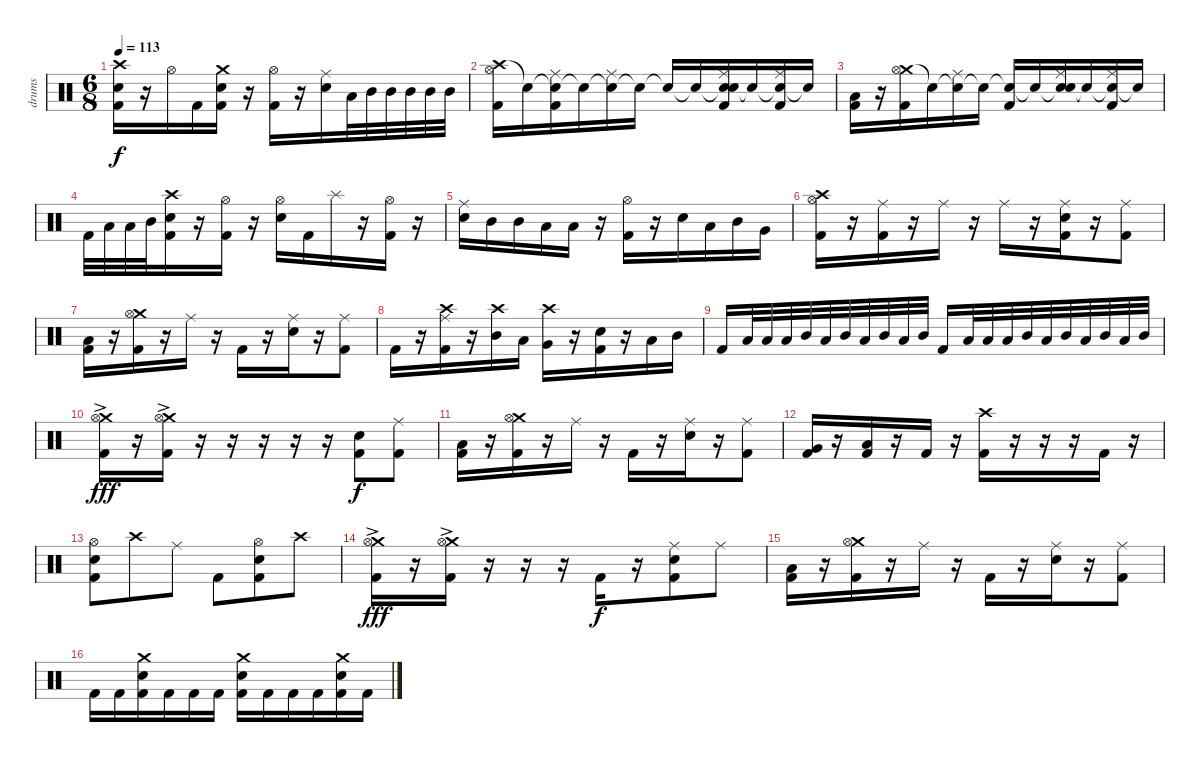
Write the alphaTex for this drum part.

\track ("drums" "drums") {instrument percussion}
\staff {score}
\articulation defaults
\ts (6 8)
\tempo 113
\clef neutral
\ks c
("Crash high (hit)" "Electric Snare (hit)" "Kick (hit) 2").16{dy f} r.16 "Hi-Hat (open)".16 "Kick (hit) 2".16 ("Crash medium (hit)" "Electric Snare (hit)" "Kick (hit) 2").16 r.16 ("Hi-Hat (open)" "Kick (hit) 2").16 r.16 ("Ride (middle)" "Electric Snare (hit)").16 "Low Tom (hit)".32 "Mid Tom (hit)".32 "Mid Tom (hit)".32 "Mid Tom (hit)".32 "Mid Tom (hit)".32 "Mid Tom (hit)".32 |
("Crash high (hit)" "Hi-Hat (open)" "Kick (hit) 2").16 "Snare (hit)"{t}.16 ("Snare (hit)"{t} "Ride (middle)" "Kick (hit) 2").16 "Snare (hit)"{t}.16 ("Snare (hit)"{t} "Ride (middle)").16 "Snare (hit)"{t}.16 "Snare (hit)"{t}.16 "Snare (hit)"{t}.16 ("Snare (hit)"{t} "Ride (middle)" "Electric Snare (hit)" "Kick (hit) 2").16 "Snare (hit)"{t}.16 ("Snare (hit)"{t} "Kick (hit) 2" "Ride (middle)").16 "Snare (hit)"{t}.16 |
("Low Tom (hit)" "Kick (hit) 2").16 r.16 ("Crash medium (hit)" "Hi-Hat (open)" "Kick (hit) 2").16 "Snare (hit)"{t}.16 ("Snare (hit)"{t} "Ride (middle)").16 "Snare (hit)"{t}.16 ("Snare (hit)"{t} "Kick (hit) 2").16 "Snare (hit)"{t}.16 ("Snare (hit)"{t} "Ride (middle)" "Electric Snare (hit)").16 "Snare (hit)"{t}.16 ("Snare (hit)"{t} "Ride (middle)" "Kick (hit) 2").16 "Snare (hit)"{t}.16 |
"Kick (hit) 2".32 "Low Tom (hit)".32 "Low Tom (hit)".32 "Mid Tom (hit)".32 ("Crash high (hit)" "Electric Snare (hit)" "Kick (hit) 2").16 r.16 ("Hi-Hat (open)" "Kick (hit) 2").16 r.16 ("Hi-Hat (open)" "Electric Snare (hit)").16 "Kick (hit) 2".16 "Splash (hit)".16 r.16 ("Hi-Hat (open)" "Kick (hit) 2").16 r.16 |
("Ride (middle)" "Electric Snare (hit)").16 "Mid Tom (hit)".16 "Mid Tom (hit)".16 "Low Tom (hit)".16 "Low Tom (hit)".16 r.16 ("Hi-Hat (open)" "Kick (hit) 2").16 r.16 "Electric Snare (hit)".16 "Low Tom (hit)".16 "Mid Tom (hit)".16 "Very Low Tom (hit)".16 |
("Crash high (hit)" "Hi-Hat (open)" "Kick (hit) 2").16 r.16 ("Ride (middle)" "Kick (hit) 2").16 r.16 "Ride (middle)".16 r.16 "Ride (middle)".16 r.16 ("Ride (middle)" "Electric Snare (hit)" "Kick (hit) 2").16 r.16 ("Kick (hit) 2" "Ride (middle)").8 |
("Low Tom (hit)" "Kick (hit) 2").16 r.16 ("Crash medium (hit)" "Hi-Hat (open)" "Kick (hit) 2").16 r.16 "Ride (middle)".16 r.16 "Kick (hit) 2".16 r.16 ("Ride (middle)" "Electric Snare (hit)").16 r.16 ("Ride (middle)" "Kick (hit) 2").8 |
"Kick (hit) 2".16 r.16 ("Crash high (hit)" "Ride (middle)" "Kick (hit) 2").16 r.16 ("Crash high (hit)" "Mid Tom (hit)").16 "Low Tom (hit)".16 ("Crash high (hit)" "Very Low Tom (hit)").16 r.16 ("Kick (hit) 2" "Electric Snare (hit)").16 r.16 "Low Tom (hit)".16 "Mid Tom (hit)".16 |
"Kick (hit) 2".16 "Low Tom (hit)".32 "Low Tom (hit)".32 "Low Tom (hit)".32 "Mid Tom (hit)".32 "Low Tom (hit)".32 "Mid Tom (hit)".32 "Low Tom (hit)".32 "Mid Tom (hit)".32 "Low Tom (hit)".32 "Mid Tom (hit)".32 "Kick (hit) 2".16 "Low Tom (hit)".32 "Low Tom (hit)".32 "Low Tom (hit)".32 "Mid Tom (hit)".32 "Low Tom (hit)".32 "Mid Tom (hit)".32 "Low Tom (hit)".32 "Mid Tom (hit)".32 "Low Tom (hit)".32 "Mid Tom (hit)".32 |
("Crash medium (hit)"{ac} "Hi-Hat (open)" "Kick (hit) 2").16{dy fff} r.16 ("Crash medium (hit)"{ac} "Hi-Hat (open)" "Kick (hit) 2").16 r.16 r.16 r.16 r.16 r.16 ("Electric Snare (hit)" "Kick (hit) 2").8{dy f} ("Kick (hit) 2" "Ride (middle)").8 |
("Low Tom (hit)" "Kick (hit) 2").16 r.16 ("Crash medium (hit)" "Hi-Hat (open)" "Kick (hit) 2").16 r.16 "Ride (middle)".16 r.16 "Kick (hit) 2".16 r.16 ("Ride (middle)" "Electric Snare (hit)").16 r.16 ("Ride (middle)" "Kick (hit) 2").8 |
("Very Low Tom (hit)" "Kick (hit) 2").16 r.16 ("Low Tom (hit)" "Kick (hit) 2").16 r.16 "Kick (hit) 2".16 r.16 ("Crash high (hit)" "Kick (hit) 2").16 r.16 r.16 r.16 "Kick (hit) 2".16 r.16 |
("Hi-Hat (open)" "Electric Snare (hit)" "Kick (hit) 2").8 "Crash high (hit)".8 "Ride (middle)".8 "Kick (hit) 2".8 ("Hi-Hat (open)" "Electric Snare (hit)" "Kick (hit) 2").8 "Crash high (hit)".8 |
("Crash medium (hit)"{ac} "Hi-Hat (open)" "Kick (hit) 2").16{dy fff} r.16 ("Crash medium (hit)"{ac} "Hi-Hat (open)" "Kick (hit) 2").16 r.16 r.16 r.16 "Kick (hit) 2".16{dy f} r.16 ("Ride (middle)" "Electric Snare (hit)" "Kick (hit) 2").8 "Ride (middle)".8 |
("Low Tom (hit)" "Kick (hit) 2").16 r.16 ("Crash medium (hit)" "Hi-Hat (open)" "Kick (hit) 2").16 r.16 "Ride (middle)".16 r.16 "Kick (hit) 2".16 r.16 ("Ride (middle)" "Electric Snare (hit)").16 r.16 ("Ride (middle)" "Kick (hit) 2").8 |
"Kick (hit) 2".16 "Kick (hit) 2".16 ("Crash medium (hit)" "Electric Snare (hit)" "Kick (hit) 2").16 "Kick (hit) 2".16 "Kick (hit) 2".16 "Kick (hit) 2".16 ("Crash medium (hit)" "Electric Snare (hit)" "Kick (hit) 2").16 "Kick (hit) 2".16 "Kick (hit) 2".16 "Kick (hit) 2".16 ("Crash medium (hit)" "Electric Snare (hit)" "Kick (hit) 2").16 "Kick (hit) 2".16
